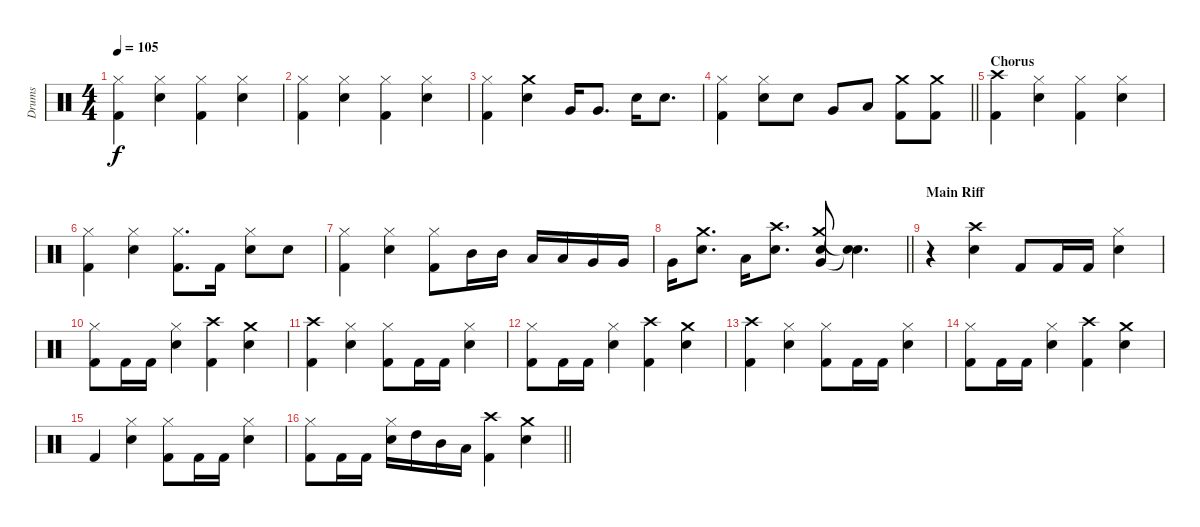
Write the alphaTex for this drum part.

\track ("Drums" "Drums") {instrument percussion}
\staff {score}
\articulation defaults
\ts (4 4)
\tempo 105
\clef neutral
\ks c
("Hi-Hat (closed)" "Kick (hit) 2").4{dy f} ("Hi-Hat (closed)" "Snare (hit) 2").4 ("Hi-Hat (closed)" "Kick (hit) 2").4 ("Hi-Hat (closed)" "Snare (hit) 2").4 |
("Hi-Hat (closed)" "Kick (hit) 2").4 ("Hi-Hat (closed)" "Snare (hit) 2").4 ("Hi-Hat (closed)" "Kick (hit) 2").4 ("Hi-Hat (closed)" "Snare (hit) 2").4 |
("Hi-Hat (closed)" "Kick (hit) 2").4 ("Crash medium (hit)" "Snare (hit) 2").4 "Very Low Tom (hit)".16 "Very Low Tom (hit)".8{d} "Snare (hit) 2".16 "Snare (hit) 2".8{d} |
\barLineRight lightlight
("Hi-Hat (closed)" "Kick (hit) 2").4 ("Hi-Hat (closed)" "Snare (hit) 2").8 "Snare (hit) 2".8 "Very Low Tom (hit)".8 "Low Tom (hit)".8 ("Crash medium (hit)" "Kick (hit) 2").8 ("Crash medium (hit)" "Kick (hit) 2").8 |
\section ("" "Chorus")
("Crash high (hit)" "Kick (hit) 2").4 ("Hi-Hat (closed)" "Snare (hit) 2").4 ("Hi-Hat (closed)" "Kick (hit) 2").4 ("Hi-Hat (closed)" "Snare (hit) 2").4 |
("Hi-Hat (closed)" "Kick (hit) 2").4 ("Hi-Hat (closed)" "Snare (hit) 2").4 ("Hi-Hat (closed)" "Kick (hit) 2").8{d} "Kick (hit) 2".16 ("Hi-Hat (closed)" "Snare (hit) 2").8 "Snare (hit) 2".8 |
("Hi-Hat (closed)" "Kick (hit) 2").4 ("Hi-Hat (closed)" "Snare (hit) 2").4 ("Hi-Hat (closed)" "Kick (hit) 2").8 "Mid Tom (hit)".16 "Mid Tom (hit)".16 "Low Tom (hit)".16 "Low Tom (hit)".16 "Very Low Tom (hit)".16 "Very Low Tom (hit)".16 |
\barLineRight lightlight "Very Low Tom (hit)".16
("Crash medium (hit)" "Snare (hit) 2").8{d} "Low Tom (hit)".16 ("Crash high (hit)" "Snare (hit) 2").8{d} ("Crash medium (hit)" "Very Low Tom (hit)" "Snare (hit) 2").8 ("Snare (hit)"{t} "Snare (hit)"{t}).4{d} |
\section ("" "Main Riff")
r.4 ("Crash high (hit)" "Snare (hit) 2").4 "Kick (hit) 2".8 "Kick (hit) 2".16 "Kick (hit) 2".16 ("Hi-Hat (closed)" "Snare (hit) 2").4 |
("Hi-Hat (closed)" "Kick (hit) 2").8 "Kick (hit) 2".16 "Kick (hit) 2".16 ("Hi-Hat (closed)" "Snare (hit) 2").4 ("Crash high (hit)" "Kick (hit) 2").4 ("Crash medium (hit)" "Snare (hit) 2").4 |
("Crash high (hit)" "Kick (hit) 2").4 ("Hi-Hat (closed)" "Snare (hit) 2").4 ("Hi-Hat (closed)" "Kick (hit) 2").8 "Kick (hit) 2".16 "Kick (hit) 2".16 ("Hi-Hat (closed)" "Snare (hit) 2").4 |
("Hi-Hat (closed)" "Kick (hit) 2").8 "Kick (hit) 2".16 "Kick (hit) 2".16 ("Hi-Hat (closed)" "Snare (hit) 2").4 ("Crash high (hit)" "Kick (hit) 2").4 ("Crash medium (hit)" "Snare (hit) 2").4 |
("Crash high (hit)" "Kick (hit) 2").4 ("Hi-Hat (closed)" "Snare (hit) 2").4 ("Hi-Hat (closed)" "Kick (hit) 2").8 "Kick (hit) 2".16 "Kick (hit) 2".16 ("Hi-Hat (closed)" "Snare (hit) 2").4 |
("Hi-Hat (closed)" "Kick (hit) 2").8 "Kick (hit) 2".16 "Kick (hit) 2".16 ("Hi-Hat (closed)" "Snare (hit) 2").4 ("Crash high (hit)" "Kick (hit) 2").4 ("Crash medium (hit)" "Snare (hit) 2").4 |
"Kick (hit) 2".4 ("Hi-Hat (closed)" "Snare (hit) 2").4 ("Hi-Hat (closed)" "Kick (hit) 2").8 "Kick (hit) 2".16 "Kick (hit) 2".16 ("Hi-Hat (closed)" "Snare (hit) 2").4 |
\barLineRight lightlight
("Hi-Hat (closed)" "Kick (hit) 2").8 "Kick (hit) 2".16 "Kick (hit) 2".16 ("Hi-Hat (closed)" "Snare (hit) 2").16 "High Tom (hit)".16 "Mid Tom (hit)".16 "Low Tom (hit)".16 ("Crash high (hit)" "Kick (hit) 2").4 ("Crash medium (hit)" "Snare (hit) 2").4
